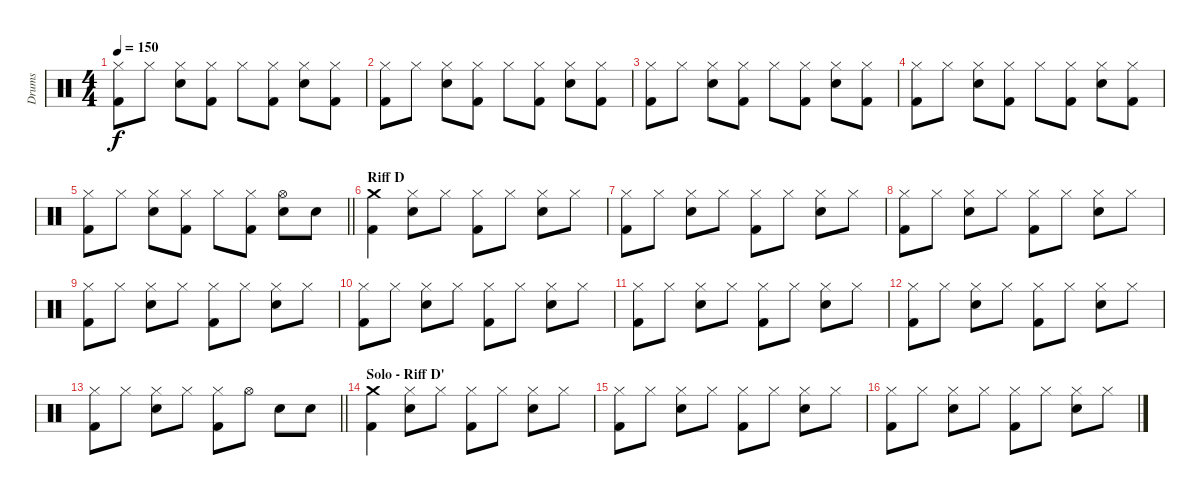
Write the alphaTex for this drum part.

\track ("Drums" "Drums") {instrument percussion}
\staff {score}
\articulation defaults
\ts (4 4)
\tempo 150
\clef neutral
\ks c
("Hi-Hat (closed)" "Kick (hit) 2").8{dy f} "Hi-Hat (closed)".8 ("Hi-Hat (closed)" "Electric Snare (hit)").8 ("Hi-Hat (closed)" "Kick (hit) 2").8 "Hi-Hat (closed)".8 ("Hi-Hat (closed)" "Kick (hit) 2").8 ("Hi-Hat (closed)" "Electric Snare (hit)").8 ("Hi-Hat (closed)" "Kick (hit) 2").8 |
("Hi-Hat (closed)" "Kick (hit) 2").8 "Hi-Hat (closed)".8 ("Hi-Hat (closed)" "Electric Snare (hit)").8 ("Hi-Hat (closed)" "Kick (hit) 2").8 "Hi-Hat (closed)".8 ("Hi-Hat (closed)" "Kick (hit) 2").8 ("Hi-Hat (closed)" "Electric Snare (hit)").8 ("Hi-Hat (closed)" "Kick (hit) 2").8 |
("Hi-Hat (closed)" "Kick (hit) 2").8 "Hi-Hat (closed)".8 ("Hi-Hat (closed)" "Electric Snare (hit)").8 ("Hi-Hat (closed)" "Kick (hit) 2").8 "Hi-Hat (closed)".8 ("Hi-Hat (closed)" "Kick (hit) 2").8 ("Hi-Hat (closed)" "Electric Snare (hit)").8 ("Hi-Hat (closed)" "Kick (hit) 2").8 |
("Hi-Hat (closed)" "Kick (hit) 2").8 "Hi-Hat (closed)".8 ("Hi-Hat (closed)" "Electric Snare (hit)").8 ("Hi-Hat (closed)" "Kick (hit) 2").8 "Hi-Hat (closed)".8 ("Hi-Hat (closed)" "Kick (hit) 2").8 ("Hi-Hat (closed)" "Electric Snare (hit)").8 ("Hi-Hat (closed)" "Kick (hit) 2").8 |
\barLineRight lightlight
("Hi-Hat (closed)" "Kick (hit) 2").8 "Hi-Hat (closed)".8 ("Hi-Hat (closed)" "Electric Snare (hit)").8 ("Hi-Hat (closed)" "Kick (hit) 2").8 "Hi-Hat (closed)".8 ("Hi-Hat (closed)" "Kick (hit) 2").8 ("Hi-Hat (open)" "Electric Snare (hit)").8 "Electric Snare (hit)".8 |
\section ("" "Riff D")
("Crash medium (hit)" "Kick (hit) 2").4 ("Hi-Hat (closed)" "Electric Snare (hit)").8 "Hi-Hat (closed)".8 ("Hi-Hat (closed)" "Kick (hit) 2").8 "Hi-Hat (closed)".8 ("Hi-Hat (closed)" "Electric Snare (hit)").8 "Hi-Hat (closed)".8 |
("Hi-Hat (closed)" "Kick (hit) 2").8 "Hi-Hat (closed)".8 ("Hi-Hat (closed)" "Electric Snare (hit)").8 "Hi-Hat (closed)".8 ("Hi-Hat (closed)" "Kick (hit) 2").8 "Hi-Hat (closed)".8 ("Hi-Hat (closed)" "Electric Snare (hit)").8 "Hi-Hat (closed)".8 |
("Hi-Hat (closed)" "Kick (hit) 2").8 "Hi-Hat (closed)".8 ("Hi-Hat (closed)" "Electric Snare (hit)").8 "Hi-Hat (closed)".8 ("Hi-Hat (closed)" "Kick (hit) 2").8 "Hi-Hat (closed)".8 ("Hi-Hat (closed)" "Electric Snare (hit)").8 "Hi-Hat (closed)".8 |
("Hi-Hat (closed)" "Kick (hit) 2").8 "Hi-Hat (closed)".8 ("Hi-Hat (closed)" "Electric Snare (hit)").8 "Hi-Hat (closed)".8 ("Hi-Hat (closed)" "Kick (hit) 2").8 "Hi-Hat (closed)".8 ("Hi-Hat (closed)" "Electric Snare (hit)").8 "Hi-Hat (closed)".8 |
("Hi-Hat (closed)" "Kick (hit) 2").8 "Hi-Hat (closed)".8 ("Hi-Hat (closed)" "Electric Snare (hit)").8 "Hi-Hat (closed)".8 ("Hi-Hat (closed)" "Kick (hit) 2").8 "Hi-Hat (closed)".8 ("Hi-Hat (closed)" "Electric Snare (hit)").8 "Hi-Hat (closed)".8 |
("Hi-Hat (closed)" "Kick (hit) 2").8 "Hi-Hat (closed)".8 ("Hi-Hat (closed)" "Electric Snare (hit)").8 "Hi-Hat (closed)".8 ("Hi-Hat (closed)" "Kick (hit) 2").8 "Hi-Hat (closed)".8 ("Hi-Hat (closed)" "Electric Snare (hit)").8 "Hi-Hat (closed)".8 |
("Hi-Hat (closed)" "Kick (hit) 2").8 "Hi-Hat (closed)".8 ("Hi-Hat (closed)" "Electric Snare (hit)").8 "Hi-Hat (closed)".8 ("Hi-Hat (closed)" "Kick (hit) 2").8 "Hi-Hat (closed)".8 ("Hi-Hat (closed)" "Electric Snare (hit)").8 "Hi-Hat (closed)".8 |
\barLineRight lightlight
("Hi-Hat (closed)" "Kick (hit) 2").8 "Hi-Hat (closed)".8 ("Hi-Hat (closed)" "Electric Snare (hit)").8 "Hi-Hat (closed)".8 ("Hi-Hat (closed)" "Kick (hit) 2").8 "Hi-Hat (open)".8 "Electric Snare (hit)".8 "Electric Snare (hit)".8 |
\section ("" "Solo - Riff D'")
("Crash medium (hit)" "Kick (hit) 2").4 ("Hi-Hat (closed)" "Electric Snare (hit)").8 "Hi-Hat (closed)".8 ("Hi-Hat (closed)" "Kick (hit) 2").8 "Hi-Hat (closed)".8 ("Hi-Hat (closed)" "Electric Snare (hit)").8 "Hi-Hat (closed)".8 |
("Hi-Hat (closed)" "Kick (hit) 2").8 "Hi-Hat (closed)".8 ("Hi-Hat (closed)" "Electric Snare (hit)").8 "Hi-Hat (closed)".8 ("Hi-Hat (closed)" "Kick (hit) 2").8 "Hi-Hat (closed)".8 ("Hi-Hat (closed)" "Electric Snare (hit)").8 "Hi-Hat (closed)".8 |
("Hi-Hat (closed)" "Kick (hit) 2").8 "Hi-Hat (closed)".8 ("Hi-Hat (closed)" "Electric Snare (hit)").8 "Hi-Hat (closed)".8 ("Hi-Hat (closed)" "Kick (hit) 2").8 "Hi-Hat (closed)".8 ("Hi-Hat (closed)" "Electric Snare (hit)").8 "Hi-Hat (closed)".8
